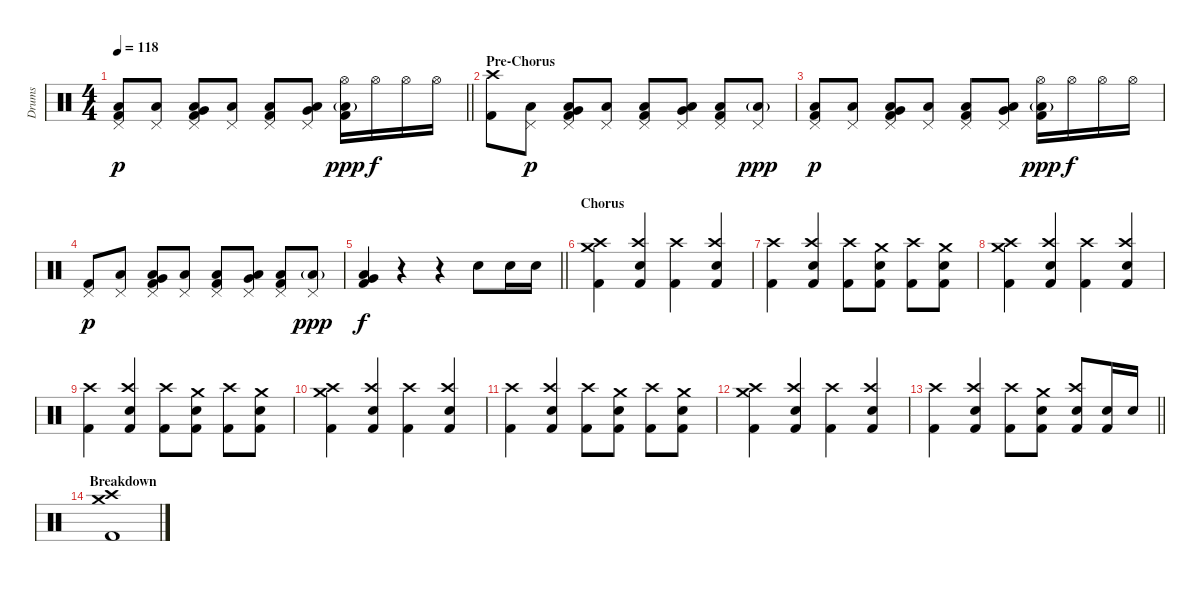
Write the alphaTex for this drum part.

\track ("Drums" "Drums") {instrument percussion}
\staff {score}
\articulation defaults
\ts (4 4)
\tempo 118
\clef neutral
\barLineRight lightlight
\ks c
("Pedal Hi-Hat (hit)" "Low Floor Tom (hit)" "Kick (hit) 2").8{dy p} ("Pedal Hi-Hat (hit)" "Low Floor Tom (hit)").8 ("Pedal Hi-Hat (hit)" "Very Low Tom (hit)" "Low Floor Tom (hit)" "Kick (hit) 2").8 ("Pedal Hi-Hat (hit)" "Low Floor Tom (hit)").8 ("Pedal Hi-Hat (hit)" "Low Floor Tom (hit)" "Kick (hit) 2").8 ("Pedal Hi-Hat (hit)" "Very Low Tom (hit)" "Low Floor Tom (hit)").8 ("Hi-Hat (open)" "Low Floor Tom (hit)"{g} "Kick (hit) 2").16{dy ppp} "Hi-Hat (open)".16{dy f} "Hi-Hat (open)".16 "Hi-Hat (open)".16 |
\section ("" "Pre-Chorus")
("Crash high (hit)" "Kick (hit) 2").8 ("Pedal Hi-Hat (hit)" "Low Floor Tom (hit)").8{dy p} ("Pedal Hi-Hat (hit)" "Very Low Tom (hit)" "Low Floor Tom (hit)" "Kick (hit) 2").8 ("Pedal Hi-Hat (hit)" "Low Floor Tom (hit)").8 ("Pedal Hi-Hat (hit)" "Low Floor Tom (hit)" "Kick (hit) 2").8 ("Pedal Hi-Hat (hit)" "Very Low Tom (hit)" "Low Floor Tom (hit)").8 ("Pedal Hi-Hat (hit)" "Low Floor Tom (hit)" "Kick (hit) 2").8 ("Pedal Hi-Hat (hit)" "Low Floor Tom (hit)"{g}).8{dy ppp} |
("Pedal Hi-Hat (hit)" "Low Floor Tom (hit)" "Kick (hit) 2").8{dy p} ("Pedal Hi-Hat (hit)" "Low Floor Tom (hit)").8 ("Pedal Hi-Hat (hit)" "Very Low Tom (hit)" "Low Floor Tom (hit)" "Kick (hit) 2").8 ("Pedal Hi-Hat (hit)" "Low Floor Tom (hit)").8 ("Pedal Hi-Hat (hit)" "Low Floor Tom (hit)" "Kick (hit) 2").8 ("Pedal Hi-Hat (hit)" "Very Low Tom (hit)" "Low Floor Tom (hit)").8 ("Hi-Hat (open)" "Low Floor Tom (hit)"{g} "Kick (hit) 2").16{dy ppp} "Hi-Hat (open)".16{dy f} "Hi-Hat (open)".16 "Hi-Hat (open)".16 |
("Pedal Hi-Hat (hit)" "Kick (hit) 2").8{dy p} ("Pedal Hi-Hat (hit)" "Low Floor Tom (hit)").8 ("Pedal Hi-Hat (hit)" "Very Low Tom (hit)" "Low Floor Tom (hit)" "Kick (hit) 2").8 ("Pedal Hi-Hat (hit)" "Low Floor Tom (hit)").8 ("Pedal Hi-Hat (hit)" "Low Floor Tom (hit)" "Kick (hit) 2").8 ("Pedal Hi-Hat (hit)" "Very Low Tom (hit)" "Low Floor Tom (hit)").8 ("Pedal Hi-Hat (hit)" "Low Floor Tom (hit)" "Kick (hit) 2").8 ("Pedal Hi-Hat (hit)" "Low Floor Tom (hit)"{g}).8{dy ppp} |
\barLineRight lightlight
("Very Low Tom (hit)" "Low Floor Tom (hit)" "Kick (hit) 2").4{dy f} r.4 r.4 "Snare (hit) 2".8 "Snare (hit) 2".16 "Snare (hit) 2".16 |
\section ("" "Chorus")
("Crash medium (hit)" "Crash high (hit)" "Kick (hit) 2").4 ("Crash high (hit)" "Snare (hit) 2" "Kick (hit) 2").4 ("Crash high (hit)" "Kick (hit) 2").4 ("Crash high (hit)" "Snare (hit) 2" "Kick (hit) 2").4 |
("Crash high (hit)" "Kick (hit) 2").4 ("Crash high (hit)" "Snare (hit) 2" "Kick (hit) 2").4 ("Crash high (hit)" "Kick (hit) 2").8 ("Crash medium (hit)" "Snare (hit) 2" "Kick (hit) 2").8 ("Crash high (hit)" "Kick (hit) 2").8 ("Crash medium (hit)" "Snare (hit) 2" "Kick (hit) 2").8 |
("Crash medium (hit)" "Crash high (hit)" "Kick (hit) 2").4 ("Crash high (hit)" "Snare (hit) 2" "Kick (hit) 2").4 ("Crash high (hit)" "Kick (hit) 2").4 ("Crash high (hit)" "Snare (hit) 2" "Kick (hit) 2").4 |
("Crash high (hit)" "Kick (hit) 2").4 ("Crash high (hit)" "Snare (hit) 2" "Kick (hit) 2").4 ("Crash high (hit)" "Kick (hit) 2").8 ("Crash medium (hit)" "Snare (hit) 2" "Kick (hit) 2").8 ("Crash high (hit)" "Kick (hit) 2").8 ("Crash medium (hit)" "Snare (hit) 2" "Kick (hit) 2").8 |
("Crash medium (hit)" "Crash high (hit)" "Kick (hit) 2").4 ("Crash high (hit)" "Snare (hit) 2" "Kick (hit) 2").4 ("Crash high (hit)" "Kick (hit) 2").4 ("Crash high (hit)" "Snare (hit) 2" "Kick (hit) 2").4 |
("Crash high (hit)" "Kick (hit) 2").4 ("Crash high (hit)" "Snare (hit) 2" "Kick (hit) 2").4 ("Crash high (hit)" "Kick (hit) 2").8 ("Crash medium (hit)" "Snare (hit) 2" "Kick (hit) 2").8 ("Crash high (hit)" "Kick (hit) 2").8 ("Crash medium (hit)" "Snare (hit) 2" "Kick (hit) 2").8 |
("Crash medium (hit)" "Crash high (hit)" "Kick (hit) 2").4 ("Crash high (hit)" "Snare (hit) 2" "Kick (hit) 2").4 ("Crash high (hit)" "Kick (hit) 2").4 ("Crash high (hit)" "Snare (hit) 2" "Kick (hit) 2").4 |
\barLineRight lightlight
("Crash high (hit)" "Kick (hit) 2").4 ("Crash high (hit)" "Snare (hit) 2" "Kick (hit) 2").4 ("Crash high (hit)" "Kick (hit) 2").8 ("Crash medium (hit)" "Snare (hit) 2" "Kick (hit) 2").8 ("Crash high (hit)" "Snare (hit) 2" "Kick (hit) 2").8 ("Snare (hit) 2" "Kick (hit) 2").16 "Snare (hit) 2".16 |
\section ("" "Breakdown")
("Crash medium (hit)" "Crash high (hit)" "Kick (hit) 2").1
